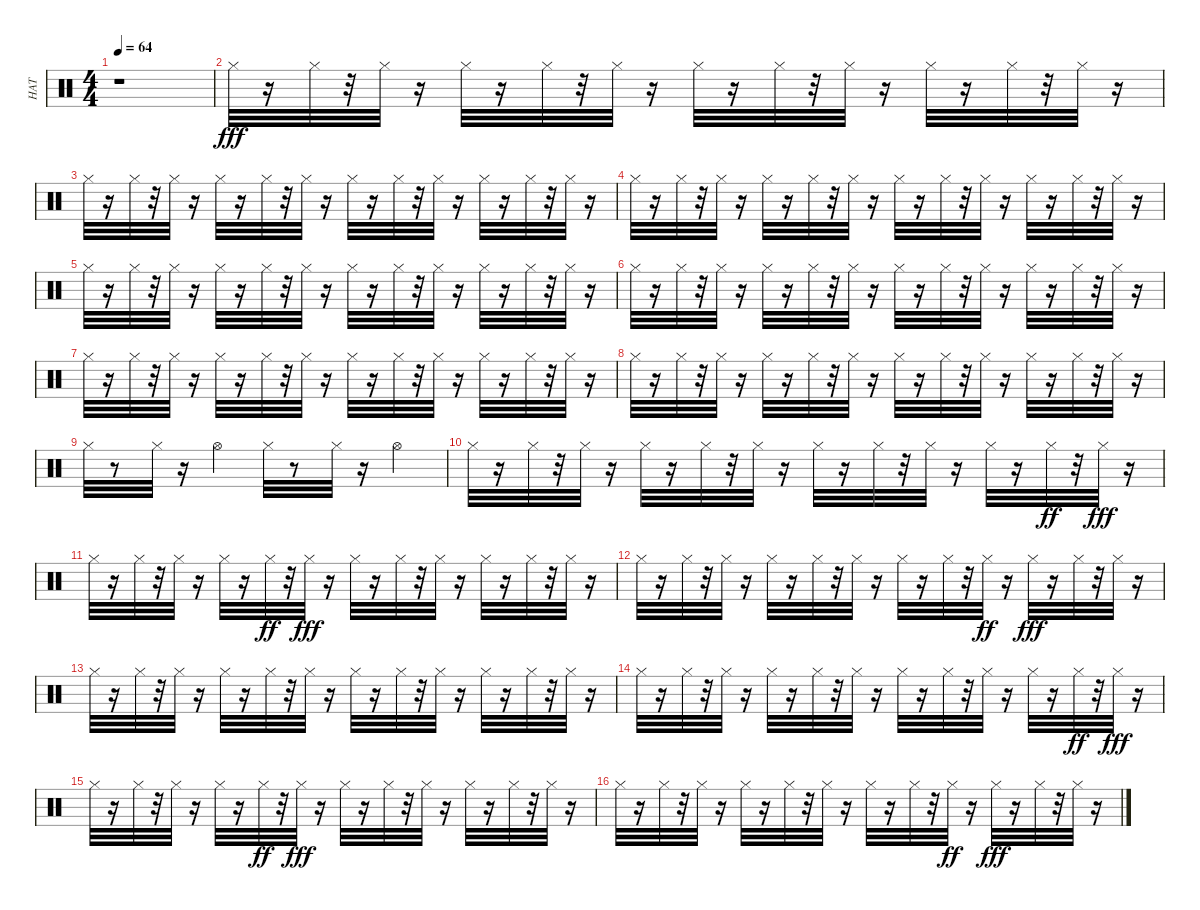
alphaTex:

\track ("HAT" "HAT") {instrument percussion}
\staff {score}
\articulation defaults
\ts (4 4)
\tempo 64
\clef neutral
\ks c
r.1{dy fff} |
"Hi-Hat (closed)".32 r.16 "Hi-Hat (closed)".32 r.32 "Hi-Hat (closed)".32 r.16 "Hi-Hat (closed)".32 r.16 "Hi-Hat (closed)".32 r.32 "Hi-Hat (closed)".32 r.16 "Hi-Hat (closed)".32 r.16 "Hi-Hat (closed)".32 r.32 "Hi-Hat (closed)".32 r.16 "Hi-Hat (closed)".32 r.16 "Hi-Hat (closed)".32 r.32 "Hi-Hat (closed)".32 r.16 |
"Hi-Hat (closed)".32 r.16 "Hi-Hat (closed)".32 r.32 "Hi-Hat (closed)".32 r.16 "Hi-Hat (closed)".32 r.16 "Hi-Hat (closed)".32 r.32 "Hi-Hat (closed)".32 r.16 "Hi-Hat (closed)".32 r.16 "Hi-Hat (closed)".32 r.32 "Hi-Hat (closed)".32 r.16 "Hi-Hat (closed)".32 r.16 "Hi-Hat (closed)".32 r.32 "Hi-Hat (closed)".32 r.16 |
"Hi-Hat (closed)".32 r.16 "Hi-Hat (closed)".32 r.32 "Hi-Hat (closed)".32 r.16 "Hi-Hat (closed)".32 r.16 "Hi-Hat (closed)".32 r.32 "Hi-Hat (closed)".32 r.16 "Hi-Hat (closed)".32 r.16 "Hi-Hat (closed)".32 r.32 "Hi-Hat (closed)".32 r.16 "Hi-Hat (closed)".32 r.16 "Hi-Hat (closed)".32 r.32 "Hi-Hat (closed)".32 r.16 |
"Hi-Hat (closed)".32 r.16 "Hi-Hat (closed)".32 r.32 "Hi-Hat (closed)".32 r.16 "Hi-Hat (closed)".32 r.16 "Hi-Hat (closed)".32 r.32 "Hi-Hat (closed)".32 r.16 "Hi-Hat (closed)".32 r.16 "Hi-Hat (closed)".32 r.32 "Hi-Hat (closed)".32 r.16 "Hi-Hat (closed)".32 r.16 "Hi-Hat (closed)".32 r.32 "Hi-Hat (closed)".32 r.16 |
"Hi-Hat (closed)".32 r.16 "Hi-Hat (closed)".32 r.32 "Hi-Hat (closed)".32 r.16 "Hi-Hat (closed)".32 r.16 "Hi-Hat (closed)".32 r.32 "Hi-Hat (closed)".32 r.16 "Hi-Hat (closed)".32 r.16 "Hi-Hat (closed)".32 r.32 "Hi-Hat (closed)".32 r.16 "Hi-Hat (closed)".32 r.16 "Hi-Hat (closed)".32 r.32 "Hi-Hat (closed)".32 r.16 |
"Hi-Hat (closed)".32 r.16 "Hi-Hat (closed)".32 r.32 "Hi-Hat (closed)".32 r.16 "Hi-Hat (closed)".32 r.16 "Hi-Hat (closed)".32 r.32 "Hi-Hat (closed)".32 r.16 "Hi-Hat (closed)".32 r.16 "Hi-Hat (closed)".32 r.32 "Hi-Hat (closed)".32 r.16 "Hi-Hat (closed)".32 r.16 "Hi-Hat (closed)".32 r.32 "Hi-Hat (closed)".32 r.16 |
"Hi-Hat (closed)".32 r.16 "Hi-Hat (closed)".32 r.32 "Hi-Hat (closed)".32 r.16 "Hi-Hat (closed)".32 r.16 "Hi-Hat (closed)".32 r.32 "Hi-Hat (closed)".32 r.16 "Hi-Hat (closed)".32 r.16 "Hi-Hat (closed)".32 r.32 "Hi-Hat (closed)".32 r.16 "Hi-Hat (closed)".32 r.16 "Hi-Hat (closed)".32 r.32 "Hi-Hat (closed)".32 r.16 |
"Hi-Hat (closed)".32 r.8 "Hi-Hat (closed)".32 r.16 "Hi-Hat (open)".4 "Hi-Hat (closed)".32 r.8 "Hi-Hat (closed)".32 r.16 "Hi-Hat (open)".4 |
"Hi-Hat (closed)".32 r.16 "Hi-Hat (closed)".32 r.32 "Hi-Hat (closed)".32 r.16 "Hi-Hat (closed)".32 r.16 "Hi-Hat (closed)".32 r.32 "Hi-Hat (closed)".32 r.16 "Hi-Hat (closed)".32 r.16 "Hi-Hat (closed)".32 r.32 "Hi-Hat (closed)".32 r.16 "Hi-Hat (closed)".32 r.16 "Hi-Hat (closed)".32{dy ff} r.32 "Hi-Hat (closed)".32{dy fff} r.16 |
"Hi-Hat (closed)".32 r.16 "Hi-Hat (closed)".32 r.32 "Hi-Hat (closed)".32 r.16 "Hi-Hat (closed)".32 r.16 "Hi-Hat (closed)".32{dy ff} r.32 "Hi-Hat (closed)".32{dy fff} r.16 "Hi-Hat (closed)".32 r.16 "Hi-Hat (closed)".32 r.32 "Hi-Hat (closed)".32 r.16 "Hi-Hat (closed)".32 r.16 "Hi-Hat (closed)".32 r.32 "Hi-Hat (closed)".32 r.16 |
"Hi-Hat (closed)".32 r.16 "Hi-Hat (closed)".32 r.32 "Hi-Hat (closed)".32 r.16 "Hi-Hat (closed)".32 r.16 "Hi-Hat (closed)".32 r.32 "Hi-Hat (closed)".32 r.16 "Hi-Hat (closed)".32 r.16 "Hi-Hat (closed)".32 r.32 "Hi-Hat (closed)".32{dy ff} r.16 "Hi-Hat (closed)".32{dy fff} r.16 "Hi-Hat (closed)".32 r.32 "Hi-Hat (closed)".32 r.16 |
"Hi-Hat (closed)".32 r.16 "Hi-Hat (closed)".32 r.32 "Hi-Hat (closed)".32 r.16 "Hi-Hat (closed)".32 r.16 "Hi-Hat (closed)".32 r.32 "Hi-Hat (closed)".32 r.16 "Hi-Hat (closed)".32 r.16 "Hi-Hat (closed)".32 r.32 "Hi-Hat (closed)".32 r.16 "Hi-Hat (closed)".32 r.16 "Hi-Hat (closed)".32 r.32 "Hi-Hat (closed)".32 r.16 |
"Hi-Hat (closed)".32 r.16 "Hi-Hat (closed)".32 r.32 "Hi-Hat (closed)".32 r.16 "Hi-Hat (closed)".32 r.16 "Hi-Hat (closed)".32 r.32 "Hi-Hat (closed)".32 r.16 "Hi-Hat (closed)".32 r.16 "Hi-Hat (closed)".32 r.32 "Hi-Hat (closed)".32 r.16 "Hi-Hat (closed)".32 r.16 "Hi-Hat (closed)".32{dy ff} r.32 "Hi-Hat (closed)".32{dy fff} r.16 |
"Hi-Hat (closed)".32 r.16 "Hi-Hat (closed)".32 r.32 "Hi-Hat (closed)".32 r.16 "Hi-Hat (closed)".32 r.16 "Hi-Hat (closed)".32{dy ff} r.32 "Hi-Hat (closed)".32{dy fff} r.16 "Hi-Hat (closed)".32 r.16 "Hi-Hat (closed)".32 r.32 "Hi-Hat (closed)".32 r.16 "Hi-Hat (closed)".32 r.16 "Hi-Hat (closed)".32 r.32 "Hi-Hat (closed)".32 r.16 |
"Hi-Hat (closed)".32 r.16 "Hi-Hat (closed)".32 r.32 "Hi-Hat (closed)".32 r.16 "Hi-Hat (closed)".32 r.16 "Hi-Hat (closed)".32 r.32 "Hi-Hat (closed)".32 r.16 "Hi-Hat (closed)".32 r.16 "Hi-Hat (closed)".32 r.32 "Hi-Hat (closed)".32{dy ff} r.16 "Hi-Hat (closed)".32{dy fff} r.16 "Hi-Hat (closed)".32 r.32 "Hi-Hat (closed)".32 r.16
